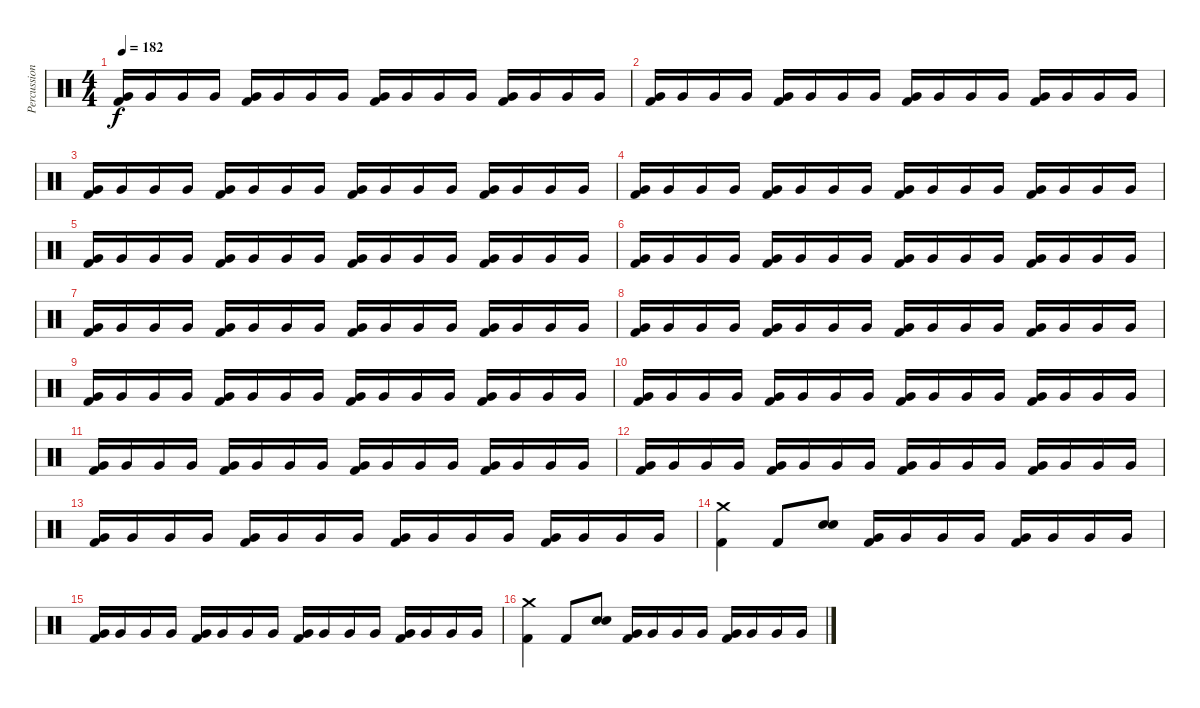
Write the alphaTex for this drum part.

\track ("Percussion" "Percussion") {instrument percussion}
\staff {score}
\articulation defaults
\ts (4 4)
\tempo 182
\clef neutral
\ks c
("Very Low Tom (hit)" "Kick (hit) 2").16{dy f} "Very Low Tom (hit)".16 "Very Low Tom (hit)".16 "Very Low Tom (hit)".16 ("Very Low Tom (hit)" "Kick (hit) 2").16 "Very Low Tom (hit)".16 "Very Low Tom (hit)".16 "Very Low Tom (hit)".16 ("Very Low Tom (hit)" "Kick (hit) 2").16 "Very Low Tom (hit)".16 "Very Low Tom (hit)".16 "Very Low Tom (hit)".16 ("Very Low Tom (hit)" "Kick (hit) 2").16 "Very Low Tom (hit)".16 "Very Low Tom (hit)".16 "Very Low Tom (hit)".16 |
("Very Low Tom (hit)" "Kick (hit) 2").16 "Very Low Tom (hit)".16 "Very Low Tom (hit)".16 "Very Low Tom (hit)".16 ("Very Low Tom (hit)" "Kick (hit) 2").16 "Very Low Tom (hit)".16 "Very Low Tom (hit)".16 "Very Low Tom (hit)".16 ("Very Low Tom (hit)" "Kick (hit) 2").16 "Very Low Tom (hit)".16 "Very Low Tom (hit)".16 "Very Low Tom (hit)".16 ("Very Low Tom (hit)" "Kick (hit) 2").16 "Very Low Tom (hit)".16 "Very Low Tom (hit)".16 "Very Low Tom (hit)".16 |
("Very Low Tom (hit)" "Kick (hit) 2").16 "Very Low Tom (hit)".16 "Very Low Tom (hit)".16 "Very Low Tom (hit)".16 ("Very Low Tom (hit)" "Kick (hit) 2").16 "Very Low Tom (hit)".16 "Very Low Tom (hit)".16 "Very Low Tom (hit)".16 ("Very Low Tom (hit)" "Kick (hit) 2").16 "Very Low Tom (hit)".16 "Very Low Tom (hit)".16 "Very Low Tom (hit)".16 ("Very Low Tom (hit)" "Kick (hit) 2").16 "Very Low Tom (hit)".16 "Very Low Tom (hit)".16 "Very Low Tom (hit)".16 |
("Very Low Tom (hit)" "Kick (hit) 2").16 "Very Low Tom (hit)".16 "Very Low Tom (hit)".16 "Very Low Tom (hit)".16 ("Very Low Tom (hit)" "Kick (hit) 2").16 "Very Low Tom (hit)".16 "Very Low Tom (hit)".16 "Very Low Tom (hit)".16 ("Very Low Tom (hit)" "Kick (hit) 2").16 "Very Low Tom (hit)".16 "Very Low Tom (hit)".16 "Very Low Tom (hit)".16 ("Very Low Tom (hit)" "Kick (hit) 2").16 "Very Low Tom (hit)".16 "Very Low Tom (hit)".16 "Very Low Tom (hit)".16 |
("Very Low Tom (hit)" "Kick (hit) 2").16 "Very Low Tom (hit)".16 "Very Low Tom (hit)".16 "Very Low Tom (hit)".16 ("Very Low Tom (hit)" "Kick (hit) 2").16 "Very Low Tom (hit)".16 "Very Low Tom (hit)".16 "Very Low Tom (hit)".16 ("Very Low Tom (hit)" "Kick (hit) 2").16 "Very Low Tom (hit)".16 "Very Low Tom (hit)".16 "Very Low Tom (hit)".16 ("Very Low Tom (hit)" "Kick (hit) 2").16 "Very Low Tom (hit)".16 "Very Low Tom (hit)".16 "Very Low Tom (hit)".16 |
("Very Low Tom (hit)" "Kick (hit) 2").16 "Very Low Tom (hit)".16 "Very Low Tom (hit)".16 "Very Low Tom (hit)".16 ("Very Low Tom (hit)" "Kick (hit) 2").16 "Very Low Tom (hit)".16 "Very Low Tom (hit)".16 "Very Low Tom (hit)".16 ("Very Low Tom (hit)" "Kick (hit) 2").16 "Very Low Tom (hit)".16 "Very Low Tom (hit)".16 "Very Low Tom (hit)".16 ("Very Low Tom (hit)" "Kick (hit) 2").16 "Very Low Tom (hit)".16 "Very Low Tom (hit)".16 "Very Low Tom (hit)".16 |
("Very Low Tom (hit)" "Kick (hit) 2").16 "Very Low Tom (hit)".16 "Very Low Tom (hit)".16 "Very Low Tom (hit)".16 ("Very Low Tom (hit)" "Kick (hit) 2").16 "Very Low Tom (hit)".16 "Very Low Tom (hit)".16 "Very Low Tom (hit)".16 ("Very Low Tom (hit)" "Kick (hit) 2").16 "Very Low Tom (hit)".16 "Very Low Tom (hit)".16 "Very Low Tom (hit)".16 ("Very Low Tom (hit)" "Kick (hit) 2").16 "Very Low Tom (hit)".16 "Very Low Tom (hit)".16 "Very Low Tom (hit)".16 |
("Very Low Tom (hit)" "Kick (hit) 2").16 "Very Low Tom (hit)".16 "Very Low Tom (hit)".16 "Very Low Tom (hit)".16 ("Very Low Tom (hit)" "Kick (hit) 2").16 "Very Low Tom (hit)".16 "Very Low Tom (hit)".16 "Very Low Tom (hit)".16 ("Very Low Tom (hit)" "Kick (hit) 2").16 "Very Low Tom (hit)".16 "Very Low Tom (hit)".16 "Very Low Tom (hit)".16 ("Very Low Tom (hit)" "Kick (hit) 2").16 "Very Low Tom (hit)".16 "Very Low Tom (hit)".16 "Very Low Tom (hit)".16 |
("Very Low Tom (hit)" "Kick (hit) 2").16 "Very Low Tom (hit)".16 "Very Low Tom (hit)".16 "Very Low Tom (hit)".16 ("Very Low Tom (hit)" "Kick (hit) 2").16 "Very Low Tom (hit)".16 "Very Low Tom (hit)".16 "Very Low Tom (hit)".16 ("Very Low Tom (hit)" "Kick (hit) 2").16 "Very Low Tom (hit)".16 "Very Low Tom (hit)".16 "Very Low Tom (hit)".16 ("Very Low Tom (hit)" "Kick (hit) 2").16 "Very Low Tom (hit)".16 "Very Low Tom (hit)".16 "Very Low Tom (hit)".16 |
("Very Low Tom (hit)" "Kick (hit) 2").16 "Very Low Tom (hit)".16 "Very Low Tom (hit)".16 "Very Low Tom (hit)".16 ("Very Low Tom (hit)" "Kick (hit) 2").16 "Very Low Tom (hit)".16 "Very Low Tom (hit)".16 "Very Low Tom (hit)".16 ("Very Low Tom (hit)" "Kick (hit) 2").16 "Very Low Tom (hit)".16 "Very Low Tom (hit)".16 "Very Low Tom (hit)".16 ("Very Low Tom (hit)" "Kick (hit) 2").16 "Very Low Tom (hit)".16 "Very Low Tom (hit)".16 "Very Low Tom (hit)".16 |
("Very Low Tom (hit)" "Kick (hit) 2").16 "Very Low Tom (hit)".16 "Very Low Tom (hit)".16 "Very Low Tom (hit)".16 ("Very Low Tom (hit)" "Kick (hit) 2").16 "Very Low Tom (hit)".16 "Very Low Tom (hit)".16 "Very Low Tom (hit)".16 ("Very Low Tom (hit)" "Kick (hit) 2").16 "Very Low Tom (hit)".16 "Very Low Tom (hit)".16 "Very Low Tom (hit)".16 ("Very Low Tom (hit)" "Kick (hit) 2").16 "Very Low Tom (hit)".16 "Very Low Tom (hit)".16 "Very Low Tom (hit)".16 |
("Very Low Tom (hit)" "Kick (hit) 2").16 "Very Low Tom (hit)".16 "Very Low Tom (hit)".16 "Very Low Tom (hit)".16 ("Very Low Tom (hit)" "Kick (hit) 2").16 "Very Low Tom (hit)".16 "Very Low Tom (hit)".16 "Very Low Tom (hit)".16 ("Very Low Tom (hit)" "Kick (hit) 2").16 "Very Low Tom (hit)".16 "Very Low Tom (hit)".16 "Very Low Tom (hit)".16 ("Very Low Tom (hit)" "Kick (hit) 2").16 "Very Low Tom (hit)".16 "Very Low Tom (hit)".16 "Very Low Tom (hit)".16 |
("Very Low Tom (hit)" "Kick (hit) 2").16 "Very Low Tom (hit)".16 "Very Low Tom (hit)".16 "Very Low Tom (hit)".16 ("Very Low Tom (hit)" "Kick (hit) 2").16 "Very Low Tom (hit)".16 "Very Low Tom (hit)".16 "Very Low Tom (hit)".16 ("Very Low Tom (hit)" "Kick (hit) 2").16 "Very Low Tom (hit)".16 "Very Low Tom (hit)".16 "Very Low Tom (hit)".16 ("Very Low Tom (hit)" "Kick (hit) 2").16 "Very Low Tom (hit)".16 "Very Low Tom (hit)".16 "Very Low Tom (hit)".16 |
("Crash medium (hit)" "Kick (hit) 2").4 "Kick (hit) 2".8 ("Electric Snare (hit)" "Electric Snare (hit)").8 ("Very Low Tom (hit)" "Kick (hit) 2").16 "Very Low Tom (hit)".16 "Very Low Tom (hit)".16 "Very Low Tom (hit)".16 ("Very Low Tom (hit)" "Kick (hit) 2").16 "Very Low Tom (hit)".16 "Very Low Tom (hit)".16 "Very Low Tom (hit)".16 |
("Very Low Tom (hit)" "Kick (hit) 2").16 "Very Low Tom (hit)".16 "Very Low Tom (hit)".16 "Very Low Tom (hit)".16 ("Very Low Tom (hit)" "Kick (hit) 2").16 "Very Low Tom (hit)".16 "Very Low Tom (hit)".16 "Very Low Tom (hit)".16 ("Very Low Tom (hit)" "Kick (hit) 2").16 "Very Low Tom (hit)".16 "Very Low Tom (hit)".16 "Very Low Tom (hit)".16 ("Very Low Tom (hit)" "Kick (hit) 2").16 "Very Low Tom (hit)".16 "Very Low Tom (hit)".16 "Very Low Tom (hit)".16 |
("Crash medium (hit)" "Kick (hit) 2").4 "Kick (hit) 2".8 ("Electric Snare (hit)" "Electric Snare (hit)").8 ("Very Low Tom (hit)" "Kick (hit) 2").16 "Very Low Tom (hit)".16 "Very Low Tom (hit)".16 "Very Low Tom (hit)".16 ("Very Low Tom (hit)" "Kick (hit) 2").16 "Very Low Tom (hit)".16 "Very Low Tom (hit)".16 "Very Low Tom (hit)".16
